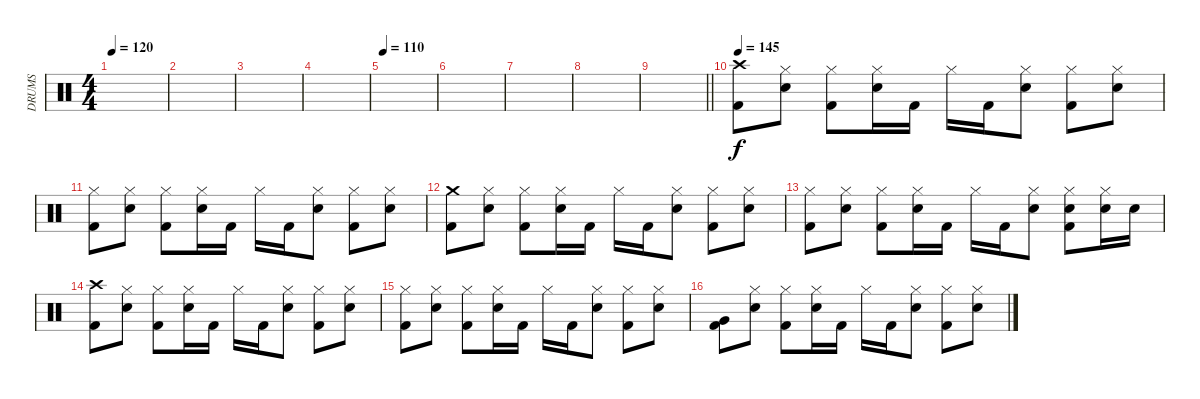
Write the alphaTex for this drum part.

\track ("DRUMS" "DRUMS") {instrument percussion}
\staff {score}
\articulation defaults
\ts (4 4)
\tempo 120
\clef neutral
\ks c
|
|
|
|
\tempo 110
|
|
|
|
\barLineRight lightlight
|
\section ("" "")
\tempo 145
("Crash high (hit)" "Kick (hit) 2").8 ("Hi-Hat (closed)" "Electric Snare (hit)").8 ("Hi-Hat (closed)" "Kick (hit) 2").8 ("Hi-Hat (closed)" "Electric Snare (hit)").16 "Kick (hit) 2".16 "Hi-Hat (closed)".16 "Kick (hit) 2".16 ("Hi-Hat (closed)" "Electric Snare (hit)").8 ("Hi-Hat (closed)" "Kick (hit) 2").8 ("Hi-Hat (closed)" "Electric Snare (hit)").8 |
("Hi-Hat (closed)" "Kick (hit) 2").8 ("Hi-Hat (closed)" "Electric Snare (hit)").8 ("Hi-Hat (closed)" "Kick (hit) 2").8 ("Hi-Hat (closed)" "Electric Snare (hit)").16 "Kick (hit) 2".16 "Hi-Hat (closed)".16 "Kick (hit) 2".16 ("Hi-Hat (closed)" "Electric Snare (hit)").8 ("Hi-Hat (closed)" "Kick (hit) 2").8 ("Hi-Hat (closed)" "Electric Snare (hit)").8 |
("Crash medium (hit)" "Kick (hit) 2").8 ("Hi-Hat (closed)" "Electric Snare (hit)").8 ("Hi-Hat (closed)" "Kick (hit) 2").8 ("Hi-Hat (closed)" "Electric Snare (hit)").16 "Kick (hit) 2".16 "Hi-Hat (closed)".16 "Kick (hit) 2".16 ("Hi-Hat (closed)" "Electric Snare (hit)").8 ("Hi-Hat (closed)" "Kick (hit) 2").8 ("Hi-Hat (closed)" "Electric Snare (hit)").8 |
("Hi-Hat (closed)" "Kick (hit) 2").8 ("Hi-Hat (closed)" "Electric Snare (hit)").8 ("Hi-Hat (closed)" "Kick (hit) 2").8 ("Hi-Hat (closed)" "Electric Snare (hit)").16 "Kick (hit) 2".16 "Hi-Hat (closed)".16 "Kick (hit) 2".16 ("Hi-Hat (closed)" "Electric Snare (hit)").8 ("Hi-Hat (closed)" "Kick (hit) 2" "Electric Snare (hit)").8 ("Hi-Hat (closed)" "Electric Snare (hit)").16 "Electric Snare (hit)".16 |
("Crash high (hit)" "Kick (hit) 2").8 ("Hi-Hat (closed)" "Electric Snare (hit)").8 ("Hi-Hat (closed)" "Kick (hit) 2").8 ("Hi-Hat (closed)" "Electric Snare (hit)").16 "Kick (hit) 2".16 "Hi-Hat (closed)".16 "Kick (hit) 2".16 ("Hi-Hat (closed)" "Electric Snare (hit)").8 ("Hi-Hat (closed)" "Kick (hit) 2").8 ("Hi-Hat (closed)" "Electric Snare (hit)").8 |
("Hi-Hat (closed)" "Kick (hit) 2").8 ("Hi-Hat (closed)" "Electric Snare (hit)").8 ("Hi-Hat (closed)" "Kick (hit) 2").8 ("Hi-Hat (closed)" "Electric Snare (hit)").16 "Kick (hit) 2".16 "Hi-Hat (closed)".16 "Kick (hit) 2".16 ("Hi-Hat (closed)" "Electric Snare (hit)").8 ("Hi-Hat (closed)" "Kick (hit) 2").8 ("Hi-Hat (closed)" "Electric Snare (hit)").8 |
("Kick (hit) 2" "Very Low Tom (hit)").8 ("Hi-Hat (closed)" "Electric Snare (hit)").8 ("Hi-Hat (closed)" "Kick (hit) 2").8 ("Hi-Hat (closed)" "Electric Snare (hit)").16 "Kick (hit) 2".16 "Hi-Hat (closed)".16 "Kick (hit) 2".16 ("Hi-Hat (closed)" "Electric Snare (hit)").8 ("Hi-Hat (closed)" "Kick (hit) 2").8 ("Hi-Hat (closed)" "Electric Snare (hit)").8
